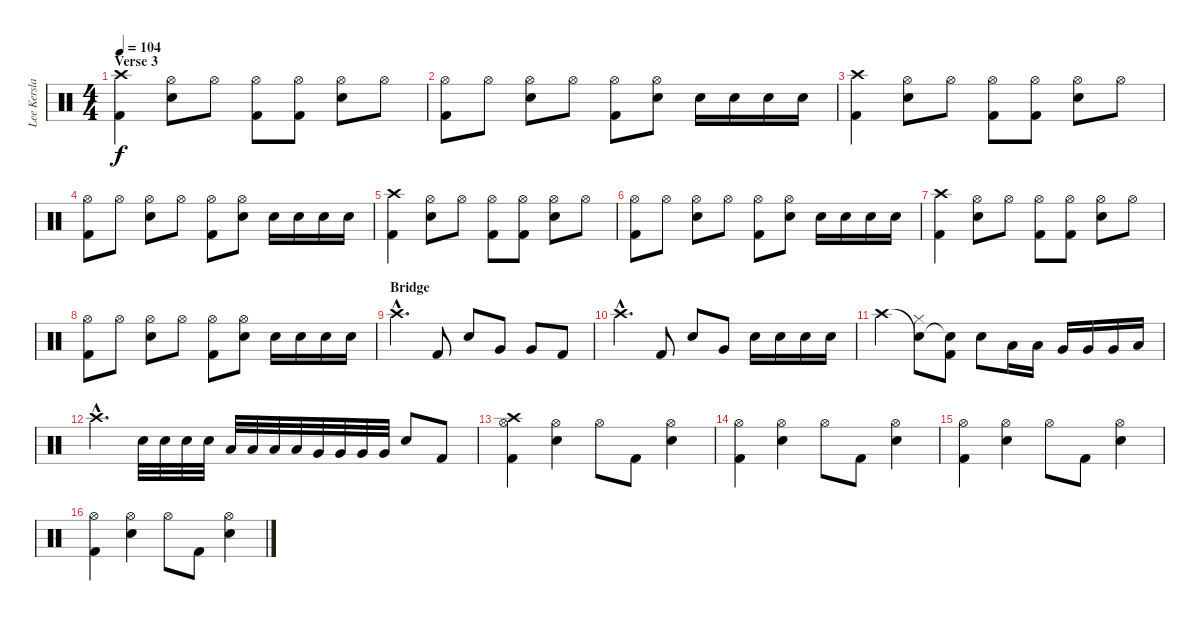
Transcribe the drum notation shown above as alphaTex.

\track ("Lee Kerslake" "Lee Kersla") {instrument percussion}
\staff {score}
\articulation defaults
\ts (4 4)
\section ("" "Verse 3")
\tempo 104
\clef neutral
\ks c
("Crash high (hit)" "Kick (hit) 2").4{dy f} ("Hi-Hat (open)" "Electric Snare (hit)").8 "Hi-Hat (open)".8 ("Hi-Hat (open)" "Kick (hit) 2").8 ("Hi-Hat (open)" "Kick (hit) 2").8 ("Hi-Hat (open)" "Electric Snare (hit)").8 "Hi-Hat (open)".8 |
("Hi-Hat (open)" "Kick (hit) 2").8 "Hi-Hat (open)".8 ("Hi-Hat (open)" "Electric Snare (hit)").8 "Hi-Hat (open)".8 ("Hi-Hat (open)" "Kick (hit) 2").8 ("Hi-Hat (open)" "Electric Snare (hit)").8 "Electric Snare (hit)".16 "Electric Snare (hit)".16 "Electric Snare (hit)".16 "Electric Snare (hit)".16 |
("Crash high (hit)" "Kick (hit) 2").4 ("Hi-Hat (open)" "Electric Snare (hit)").8 "Hi-Hat (open)".8 ("Hi-Hat (open)" "Kick (hit) 2").8 ("Hi-Hat (open)" "Kick (hit) 2").8 ("Hi-Hat (open)" "Electric Snare (hit)").8 "Hi-Hat (open)".8 |
("Hi-Hat (open)" "Kick (hit) 2").8 "Hi-Hat (open)".8 ("Hi-Hat (open)" "Electric Snare (hit)").8 "Hi-Hat (open)".8 ("Hi-Hat (open)" "Kick (hit) 2").8 ("Hi-Hat (open)" "Electric Snare (hit)").8 "Electric Snare (hit)".16 "Electric Snare (hit)".16 "Electric Snare (hit)".16 "Electric Snare (hit)".16 |
("Crash high (hit)" "Kick (hit) 2").4 ("Hi-Hat (open)" "Electric Snare (hit)").8 "Hi-Hat (open)".8 ("Hi-Hat (open)" "Kick (hit) 2").8 ("Hi-Hat (open)" "Kick (hit) 2").8 ("Hi-Hat (open)" "Electric Snare (hit)").8 "Hi-Hat (open)".8 |
("Hi-Hat (open)" "Kick (hit) 2").8 "Hi-Hat (open)".8 ("Hi-Hat (open)" "Electric Snare (hit)").8 "Hi-Hat (open)".8 ("Hi-Hat (open)" "Kick (hit) 2").8 ("Hi-Hat (open)" "Electric Snare (hit)").8 "Electric Snare (hit)".16 "Electric Snare (hit)".16 "Electric Snare (hit)".16 "Electric Snare (hit)".16 |
("Crash high (hit)" "Kick (hit) 2").4 ("Hi-Hat (open)" "Electric Snare (hit)").8 "Hi-Hat (open)".8 ("Hi-Hat (open)" "Kick (hit) 2").8 ("Hi-Hat (open)" "Kick (hit) 2").8 ("Hi-Hat (open)" "Electric Snare (hit)").8 "Hi-Hat (open)".8 |
("Hi-Hat (open)" "Kick (hit) 2").8 "Hi-Hat (open)".8 ("Hi-Hat (open)" "Electric Snare (hit)").8 "Hi-Hat (open)".8 ("Hi-Hat (open)" "Kick (hit) 2").8 ("Hi-Hat (open)" "Electric Snare (hit)").8 "Electric Snare (hit)".16 "Electric Snare (hit)".16 "Electric Snare (hit)".16 "Electric Snare (hit)".16 |
\section ("" "Bridge")
"Crash high (hit)"{hac}.4{d} "Kick (hit) 2".8 "Electric Snare (hit)".8 "Very Low Tom (hit)".8 "Very Low Tom (hit)".8 "Kick (hit) 2".8 |
"Crash high (hit)"{hac}.4{d} "Kick (hit) 2".8 "Electric Snare (hit)".8 "Very Low Tom (hit)".8 "Electric Snare (hit)".16 "Electric Snare (hit)".16 "Electric Snare (hit)".16 "Electric Snare (hit)".16 |
"Crash high (hit)".4 ("Snare (hit)"{t} "Hi-Hat (closed)").8 ("Snare (hit)"{t} "Kick (hit) 2").8 "Electric Snare (hit)".8 "Low Tom (hit)".16 "Low Tom (hit)".16 "Very Low Tom (hit)".16 "Very Low Tom (hit)".16 "Very Low Tom (hit)".16 "Low Floor Tom (hit)".16 |
"Crash high (hit)"{hac}.4{d} "Electric Snare (hit)".32 "Electric Snare (hit)".32 "Electric Snare (hit)".32 "Electric Snare (hit)".32 "Low Floor Tom (hit)".32 "Low Floor Tom (hit)".32 "Low Floor Tom (hit)".32 "Low Floor Tom (hit)".32 "Very Low Tom (hit)".32 "Very Low Tom (hit)".32 "Very Low Tom (hit)".32 "Very Low Tom (hit)".32 "Electric Snare (hit)".8 "Kick (hit) 2".8 |
("Crash high (hit)" "Hi-Hat (open)" "Kick (hit) 2").4 ("Hi-Hat (open)" "Electric Snare (hit)").4 "Hi-Hat (open)".8 "Kick (hit) 2".8 ("Hi-Hat (open)" "Electric Snare (hit)").4 |
("Hi-Hat (open)" "Kick (hit) 2").4 ("Hi-Hat (open)" "Electric Snare (hit)").4 "Hi-Hat (open)".8 "Kick (hit) 2".8 ("Hi-Hat (open)" "Electric Snare (hit)").4 |
("Hi-Hat (open)" "Kick (hit) 2").4 ("Hi-Hat (open)" "Electric Snare (hit)").4 "Hi-Hat (open)".8 "Kick (hit) 2".8 ("Hi-Hat (open)" "Electric Snare (hit)").4 |
("Hi-Hat (open)" "Kick (hit) 2").4 ("Hi-Hat (open)" "Electric Snare (hit)").4 "Hi-Hat (open)".8 "Kick (hit) 2".8 ("Hi-Hat (open)" "Electric Snare (hit)").4
